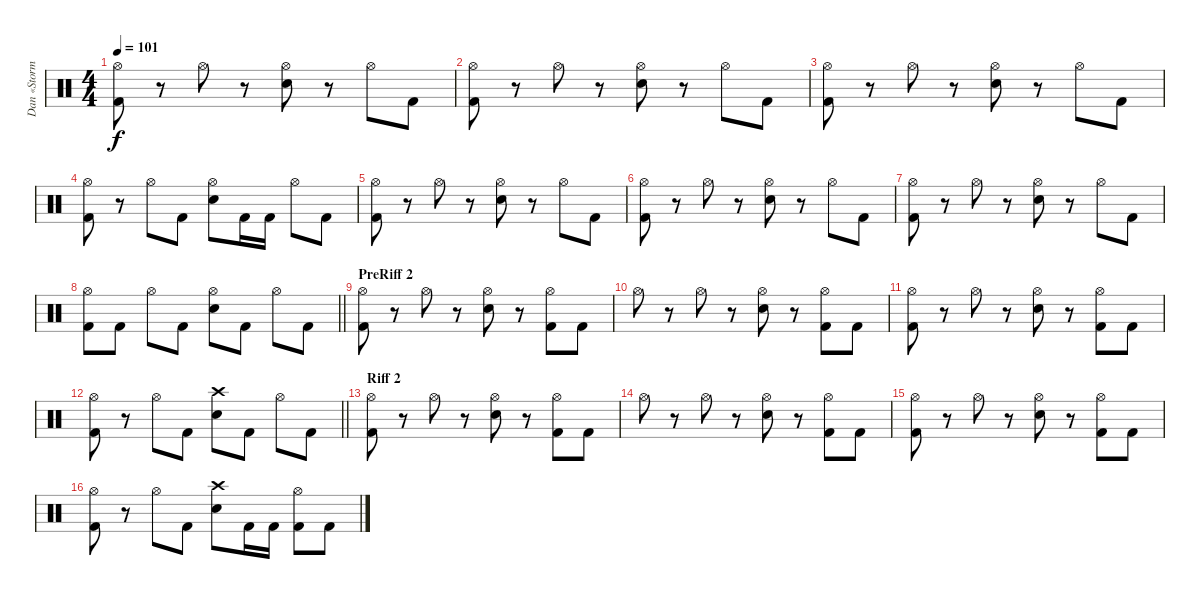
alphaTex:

\track ("Dan «Storm» Mullins" "Dan «Storm") {instrument percussion}
\staff {score}
\articulation defaults
\ts (4 4)
\tempo 101
\clef neutral
\ks c
("Hi-Hat (open)" "Kick (hit) 2").8{dy f} r.8 "Hi-Hat (open)".8 r.8 ("Hi-Hat (open)" "Electric Snare (hit)").8 r.8 "Hi-Hat (open)".8 "Kick (hit) 2".8 |
("Hi-Hat (open)" "Kick (hit) 2").8 r.8 "Hi-Hat (open)".8 r.8 ("Hi-Hat (open)" "Electric Snare (hit)").8 r.8 "Hi-Hat (open)".8 "Kick (hit) 2".8 |
("Hi-Hat (open)" "Kick (hit) 2").8 r.8 "Hi-Hat (open)".8 r.8 ("Hi-Hat (open)" "Electric Snare (hit)").8 r.8 "Hi-Hat (open)".8 "Kick (hit) 2".8 |
("Hi-Hat (open)" "Kick (hit) 2").8 r.8 "Hi-Hat (open)".8 "Kick (hit) 2".8 ("Hi-Hat (open)" "Electric Snare (hit)").8 "Kick (hit) 2".16 "Kick (hit) 2".16 "Hi-Hat (open)".8 "Kick (hit) 2".8 |
("Hi-Hat (open)" "Kick (hit) 2").8 r.8 "Hi-Hat (open)".8 r.8 ("Hi-Hat (open)" "Electric Snare (hit)").8 r.8 "Hi-Hat (open)".8 "Kick (hit) 2".8 |
("Hi-Hat (open)" "Kick (hit) 2").8 r.8 "Hi-Hat (open)".8 r.8 ("Hi-Hat (open)" "Electric Snare (hit)").8 r.8 "Hi-Hat (open)".8 "Kick (hit) 2".8 |
("Hi-Hat (open)" "Kick (hit) 2").8 r.8 "Hi-Hat (open)".8 r.8 ("Hi-Hat (open)" "Electric Snare (hit)").8 r.8 "Hi-Hat (open)".8 "Kick (hit) 2".8 |
\barLineRight lightlight
("Hi-Hat (open)" "Kick (hit) 2").8 "Kick (hit) 2".8 "Hi-Hat (open)".8 "Kick (hit) 2".8 ("Hi-Hat (open)" "Electric Snare (hit)").8 "Kick (hit) 2".8 "Hi-Hat (open)".8 "Kick (hit) 2".8 |
\section ("" "PreRiff 2")
("Hi-Hat (open)" "Kick (hit) 2").8 r.8 "Hi-Hat (open)".8 r.8 ("Hi-Hat (open)" "Electric Snare (hit)").8 r.8 ("Hi-Hat (open)" "Kick (hit) 2").8 "Kick (hit) 2".8 |
"Hi-Hat (open)".8 r.8 "Hi-Hat (open)".8 r.8 ("Hi-Hat (open)" "Electric Snare (hit)").8 r.8 ("Hi-Hat (open)" "Kick (hit) 2").8 "Kick (hit) 2".8 |
("Hi-Hat (open)" "Kick (hit) 2").8 r.8 "Hi-Hat (open)".8 r.8 ("Hi-Hat (open)" "Electric Snare (hit)").8 r.8 ("Hi-Hat (open)" "Kick (hit) 2").8 "Kick (hit) 2".8 |
\barLineRight lightlight
("Hi-Hat (open)" "Kick (hit) 2").8 r.8 "Hi-Hat (open)".8 "Kick (hit) 2".8 ("Crash high (hit)" "Electric Snare (hit)").8 "Kick (hit) 2".8 "Hi-Hat (open)".8 "Kick (hit) 2".8 |
\section ("" "Riff 2")
("Hi-Hat (open)" "Kick (hit) 2").8 r.8 "Hi-Hat (open)".8 r.8 ("Hi-Hat (open)" "Electric Snare (hit)").8 r.8 ("Hi-Hat (open)" "Kick (hit) 2").8 "Kick (hit) 2".8 |
"Hi-Hat (open)".8 r.8 "Hi-Hat (open)".8 r.8 ("Hi-Hat (open)" "Electric Snare (hit)").8 r.8 ("Hi-Hat (open)" "Kick (hit) 2").8 "Kick (hit) 2".8 |
("Hi-Hat (open)" "Kick (hit) 2").8 r.8 "Hi-Hat (open)".8 r.8 ("Hi-Hat (open)" "Electric Snare (hit)").8 r.8 ("Hi-Hat (open)" "Kick (hit) 2").8 "Kick (hit) 2".8 |
("Hi-Hat (open)" "Kick (hit) 2").8 r.8 "Hi-Hat (open)".8 "Kick (hit) 2".8 ("Crash high (hit)" "Electric Snare (hit)").8 "Kick (hit) 2".16 "Kick (hit) 2".16 ("Hi-Hat (open)" "Kick (hit) 2").8 "Kick (hit) 2".8
